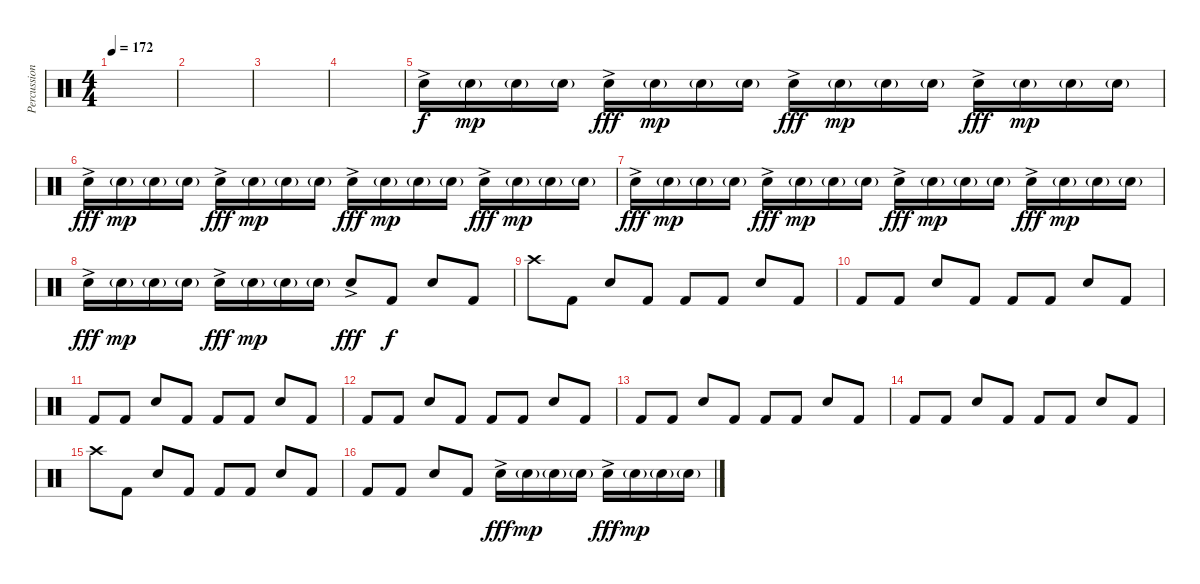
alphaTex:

\track ("Percussion" "Percussion") {instrument percussion}
\staff {score}
\articulation defaults
\ts (4 4)
\tempo 172
\clef neutral
\ks c
|
|
|
|
"Snare (hit) 2"{ac}.16{volume 7} "Snare (hit) 2"{g}.16{dy mp} "Snare (hit) 2"{g}.16 "Snare (hit) 2"{g}.16 "Snare (hit) 2"{ac}.16{dy fff} "Snare (hit) 2"{g}.16{dy mp} "Snare (hit) 2"{g}.16 "Snare (hit) 2"{g}.16 "Snare (hit) 2"{ac}.16{dy fff volume 8} "Snare (hit) 2"{g}.16{dy mp} "Snare (hit) 2"{g}.16 "Snare (hit) 2"{g}.16 "Snare (hit) 2"{ac}.16{dy fff} "Snare (hit) 2"{g}.16{dy mp} "Snare (hit) 2"{g}.16 "Snare (hit) 2"{g}.16 |
"Snare (hit) 2"{ac}.16{dy fff volume 9} "Snare (hit) 2"{g}.16{dy mp} "Snare (hit) 2"{g}.16 "Snare (hit) 2"{g}.16 "Snare (hit) 2"{ac}.16{dy fff} "Snare (hit) 2"{g}.16{dy mp} "Snare (hit) 2"{g}.16 "Snare (hit) 2"{g}.16 "Snare (hit) 2"{ac}.16{dy fff volume 10} "Snare (hit) 2"{g}.16{dy mp} "Snare (hit) 2"{g}.16 "Snare (hit) 2"{g}.16 "Snare (hit) 2"{ac}.16{dy fff} "Snare (hit) 2"{g}.16{dy mp} "Snare (hit) 2"{g}.16 "Snare (hit) 2"{g}.16 |
"Snare (hit) 2"{ac}.16{dy fff volume 11} "Snare (hit) 2"{g}.16{dy mp} "Snare (hit) 2"{g}.16 "Snare (hit) 2"{g}.16 "Snare (hit) 2"{ac}.16{dy fff} "Snare (hit) 2"{g}.16{dy mp} "Snare (hit) 2"{g}.16 "Snare (hit) 2"{g}.16 "Snare (hit) 2"{ac}.16{dy fff volume 12} "Snare (hit) 2"{g}.16{dy mp} "Snare (hit) 2"{g}.16 "Snare (hit) 2"{g}.16 "Snare (hit) 2"{ac}.16{dy fff} "Snare (hit) 2"{g}.16{dy mp} "Snare (hit) 2"{g}.16 "Snare (hit) 2"{g}.16 |
"Snare (hit) 2"{ac}.16{dy fff volume 13} "Snare (hit) 2"{g}.16{dy mp} "Snare (hit) 2"{g}.16 "Snare (hit) 2"{g}.16 "Snare (hit) 2"{ac}.16{dy fff} "Snare (hit) 2"{g}.16{dy mp} "Snare (hit) 2"{g}.16 "Snare (hit) 2"{g}.16 "Snare (hit) 2"{ac}.8{dy fff} "Kick (hit) 2".8{dy f} "Snare (hit) 2".8 "Kick (hit) 2".8 |
"Crash high (hit)".8 "Kick (hit) 2".8 "Snare (hit) 2".8 "Kick (hit) 2".8 "Kick (hit) 2".8 "Kick (hit) 2".8 "Snare (hit) 2".8 "Kick (hit) 2".8 |
"Kick (hit) 2".8 "Kick (hit) 2".8 "Snare (hit) 2".8 "Kick (hit) 2".8 "Kick (hit) 2".8 "Kick (hit) 2".8 "Snare (hit) 2".8 "Kick (hit) 2".8 |
"Kick (hit) 2".8 "Kick (hit) 2".8 "Snare (hit) 2".8 "Kick (hit) 2".8 "Kick (hit) 2".8 "Kick (hit) 2".8 "Snare (hit) 2".8 "Kick (hit) 2".8 |
"Kick (hit) 2".8 "Kick (hit) 2".8 "Snare (hit) 2".8 "Kick (hit) 2".8 "Kick (hit) 2".8 "Kick (hit) 2".8 "Snare (hit) 2".8 "Kick (hit) 2".8 |
"Kick (hit) 2".8 "Kick (hit) 2".8 "Snare (hit) 2".8 "Kick (hit) 2".8 "Kick (hit) 2".8 "Kick (hit) 2".8 "Snare (hit) 2".8 "Kick (hit) 2".8 |
"Kick (hit) 2".8 "Kick (hit) 2".8 "Snare (hit) 2".8 "Kick (hit) 2".8 "Kick (hit) 2".8 "Kick (hit) 2".8 "Snare (hit) 2".8 "Kick (hit) 2".8 |
"Crash high (hit)".8 "Kick (hit) 2".8 "Snare (hit) 2".8 "Kick (hit) 2".8 "Kick (hit) 2".8 "Kick (hit) 2".8 "Snare (hit) 2".8 "Kick (hit) 2".8 |
"Kick (hit) 2".8 "Kick (hit) 2".8 "Snare (hit) 2".8 "Kick (hit) 2".8 "Snare (hit) 2"{ac}.16{dy fff} "Snare (hit) 2"{g}.16{dy mp} "Snare (hit) 2"{g}.16 "Snare (hit) 2"{g}.16 "Snare (hit) 2"{ac}.16{dy fff} "Snare (hit) 2"{g}.16{dy mp} "Snare (hit) 2"{g}.16 "Snare (hit) 2"{g}.16
